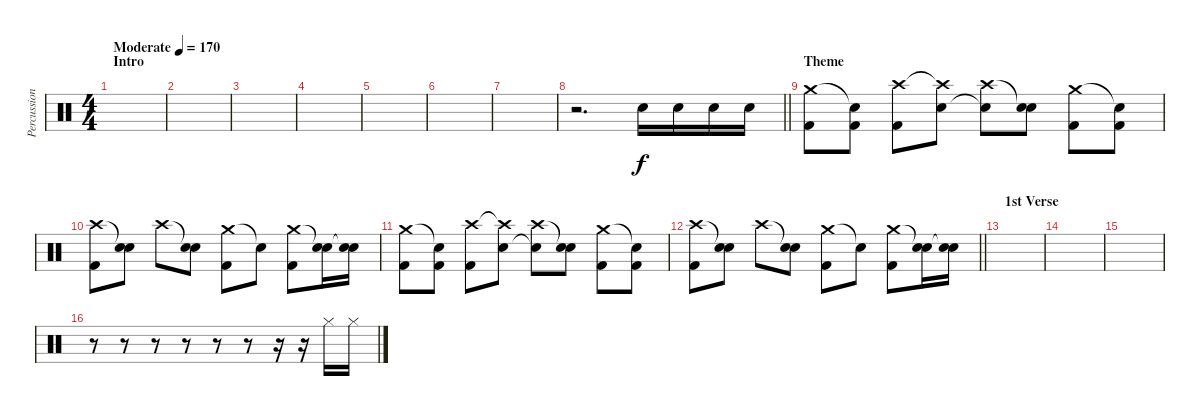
\track ("Percussion" "Percussion") {instrument percussion}
\staff {score}
\articulation defaults
\ts (4 4)
\section ("" "Intro")
\tempo (170 "Moderate")
\clef neutral
\ks c
|
|
|
|
|
|
|
\barLineRight lightlight
r.2{d} "Electric Snare (hit)".16 "Electric Snare (hit)".16 "Electric Snare (hit)".16 "Electric Snare (hit)".16 |
\section ("" "Theme")
("Crash medium (hit)" "Kick (hit) 2").8 ("Snare (hit)"{t} "Kick (hit) 2").8 ("Crash high (hit)" "Kick (hit) 2").8 ("Crash high (hit)"{t} "Electric Snare (hit)").8 ("Crash high (hit)" "Snare (hit)"{t}).8 ("Snare (hit)"{t} "Electric Snare (hit)").8 ("Crash medium (hit)" "Kick (hit) 2").8 ("Snare (hit)"{t} "Kick (hit) 2").8 |
("Crash high (hit)" "Kick (hit) 2").8 ("Snare (hit)"{t} "Electric Snare (hit)").8 "Crash high (hit)".8 ("Snare (hit)"{t} "Electric Snare (hit)").8 ("Crash medium (hit)" "Kick (hit) 2").8 "Snare (hit)"{t}.8 ("Crash medium (hit)" "Kick (hit) 2").8 ("Snare (hit)"{t} "Electric Snare (hit)").16 ("Snare (hit)"{t} "Electric Snare (hit)").16 |
("Crash medium (hit)" "Kick (hit) 2").8 ("Snare (hit)"{t} "Kick (hit) 2").8 ("Crash high (hit)" "Kick (hit) 2").8 ("Crash high (hit)"{t} "Electric Snare (hit)").8 ("Crash high (hit)" "Snare (hit)"{t}).8 ("Snare (hit)"{t} "Electric Snare (hit)").8 ("Crash medium (hit)" "Kick (hit) 2").8 ("Snare (hit)"{t} "Kick (hit) 2").8 |
\barLineRight lightlight
("Crash high (hit)" "Kick (hit) 2").8 ("Snare (hit)"{t} "Electric Snare (hit)").8 "Crash high (hit)".8 ("Snare (hit)"{t} "Electric Snare (hit)").8 ("Crash medium (hit)" "Kick (hit) 2").8 "Snare (hit)"{t}.8 ("Crash medium (hit)" "Kick (hit) 2").8 ("Snare (hit)"{t} "Electric Snare (hit)").16 ("Snare (hit)"{t} "Electric Snare (hit)").16 |
\section ("" "1st Verse")
|
|
|
r.8 r.8 r.8 r.8 r.8 r.8 r.16 r.16 "Hi-Hat (closed)".16 "Hi-Hat (closed)".16
